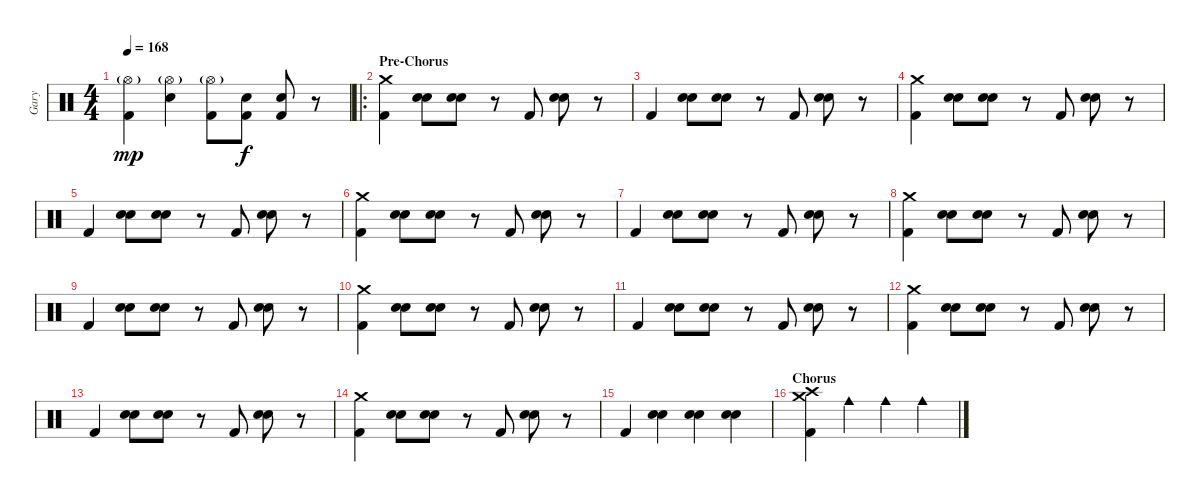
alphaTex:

\track ("Gary" "Gary") {instrument percussion}
\staff {score}
\articulation defaults
\ts (4 4)
\tempo 168
\clef neutral
\ks c
("Hi-Hat (open)"{g} "Kick (hit) 2").4{dy mp} ("Hi-Hat (open)"{g} "Electric Snare (hit)").4 ("Hi-Hat (open)"{g} "Kick (hit) 2").8 ("Electric Snare (hit)" "Kick (hit) 2").8{dy f} ("Electric Snare (hit)" "Kick (hit) 2").8 r.8 |
\ro
\section ("" "Pre-Chorus")
("Crash medium (hit)" "Kick (hit) 2").4 ("Electric Snare (hit)" "Electric Snare (hit)").8{bu 120} ("Electric Snare (hit)" "Electric Snare (hit)").8{bu 120} r.8 "Kick (hit) 2".8 ("Electric Snare (hit)" "Electric Snare (hit)").8{bu 120} r.8 |
"Kick (hit) 2".4 ("Electric Snare (hit)" "Electric Snare (hit)").8{bu 120} ("Electric Snare (hit)" "Electric Snare (hit)").8{bu 120} r.8 "Kick (hit) 2".8 ("Electric Snare (hit)" "Electric Snare (hit)").8{bu 120} r.8 |
("Crash medium (hit)" "Kick (hit) 2").4 ("Electric Snare (hit)" "Electric Snare (hit)").8{bu 120} ("Electric Snare (hit)" "Electric Snare (hit)").8{bu 120} r.8 "Kick (hit) 2".8 ("Electric Snare (hit)" "Electric Snare (hit)").8{bu 120} r.8 |
"Kick (hit) 2".4 ("Electric Snare (hit)" "Electric Snare (hit)").8{bu 120} ("Electric Snare (hit)" "Electric Snare (hit)").8{bu 120} r.8 "Kick (hit) 2".8 ("Electric Snare (hit)" "Electric Snare (hit)").8{bu 120} r.8 |
("Crash medium (hit)" "Kick (hit) 2").4 ("Electric Snare (hit)" "Electric Snare (hit)").8{bu 120} ("Electric Snare (hit)" "Electric Snare (hit)").8{bu 120} r.8 "Kick (hit) 2".8 ("Electric Snare (hit)" "Electric Snare (hit)").8{bu 120} r.8 |
"Kick (hit) 2".4 ("Electric Snare (hit)" "Electric Snare (hit)").8{bu 120} ("Electric Snare (hit)" "Electric Snare (hit)").8{bu 120} r.8 "Kick (hit) 2".8 ("Electric Snare (hit)" "Electric Snare (hit)").8{bu 120} r.8 |
("Crash medium (hit)" "Kick (hit) 2").4 ("Electric Snare (hit)" "Electric Snare (hit)").8{bu 120} ("Electric Snare (hit)" "Electric Snare (hit)").8{bu 120} r.8 "Kick (hit) 2".8 ("Electric Snare (hit)" "Electric Snare (hit)").8{bu 120} r.8 |
"Kick (hit) 2".4 ("Electric Snare (hit)" "Electric Snare (hit)").8{bu 120} ("Electric Snare (hit)" "Electric Snare (hit)").8{bu 120} r.8 "Kick (hit) 2".8 ("Electric Snare (hit)" "Electric Snare (hit)").8{bu 120} r.8 |
("Crash medium (hit)" "Kick (hit) 2").4 ("Electric Snare (hit)" "Electric Snare (hit)").8{bu 120} ("Electric Snare (hit)" "Electric Snare (hit)").8{bu 120} r.8 "Kick (hit) 2".8 ("Electric Snare (hit)" "Electric Snare (hit)").8{bu 120} r.8 |
"Kick (hit) 2".4 ("Electric Snare (hit)" "Electric Snare (hit)").8{bu 120} ("Electric Snare (hit)" "Electric Snare (hit)").8{bu 120} r.8 "Kick (hit) 2".8 ("Electric Snare (hit)" "Electric Snare (hit)").8{bu 120} r.8 |
("Crash medium (hit)" "Kick (hit) 2").4 ("Electric Snare (hit)" "Electric Snare (hit)").8{bu 120} ("Electric Snare (hit)" "Electric Snare (hit)").8{bu 120} r.8 "Kick (hit) 2".8 ("Electric Snare (hit)" "Electric Snare (hit)").8{bu 120} r.8 |
"Kick (hit) 2".4 ("Electric Snare (hit)" "Electric Snare (hit)").8{bu 120} ("Electric Snare (hit)" "Electric Snare (hit)").8{bu 120} r.8 "Kick (hit) 2".8 ("Electric Snare (hit)" "Electric Snare (hit)").8{bu 120} r.8 |
("Crash medium (hit)" "Kick (hit) 2").4 ("Electric Snare (hit)" "Electric Snare (hit)").8{bu 120} ("Electric Snare (hit)" "Electric Snare (hit)").8{bu 120} r.8 "Kick (hit) 2".8 ("Electric Snare (hit)" "Electric Snare (hit)").8{bu 120} r.8 |
"Kick (hit) 2".4 ("Electric Snare (hit)" "Electric Snare (hit)").4{bu 120} ("Electric Snare (hit)" "Electric Snare (hit)").4{bu 120} ("Electric Snare (hit)" "Electric Snare (hit)").4{bu 120} |
\section ("" "Chorus")
("Crash medium (hit)" "Crash high (hit)" "Kick (hit) 2").4 "Cowbell medium (hit)".4 "Cowbell medium (hit)".4 "Cowbell medium (hit)".4
